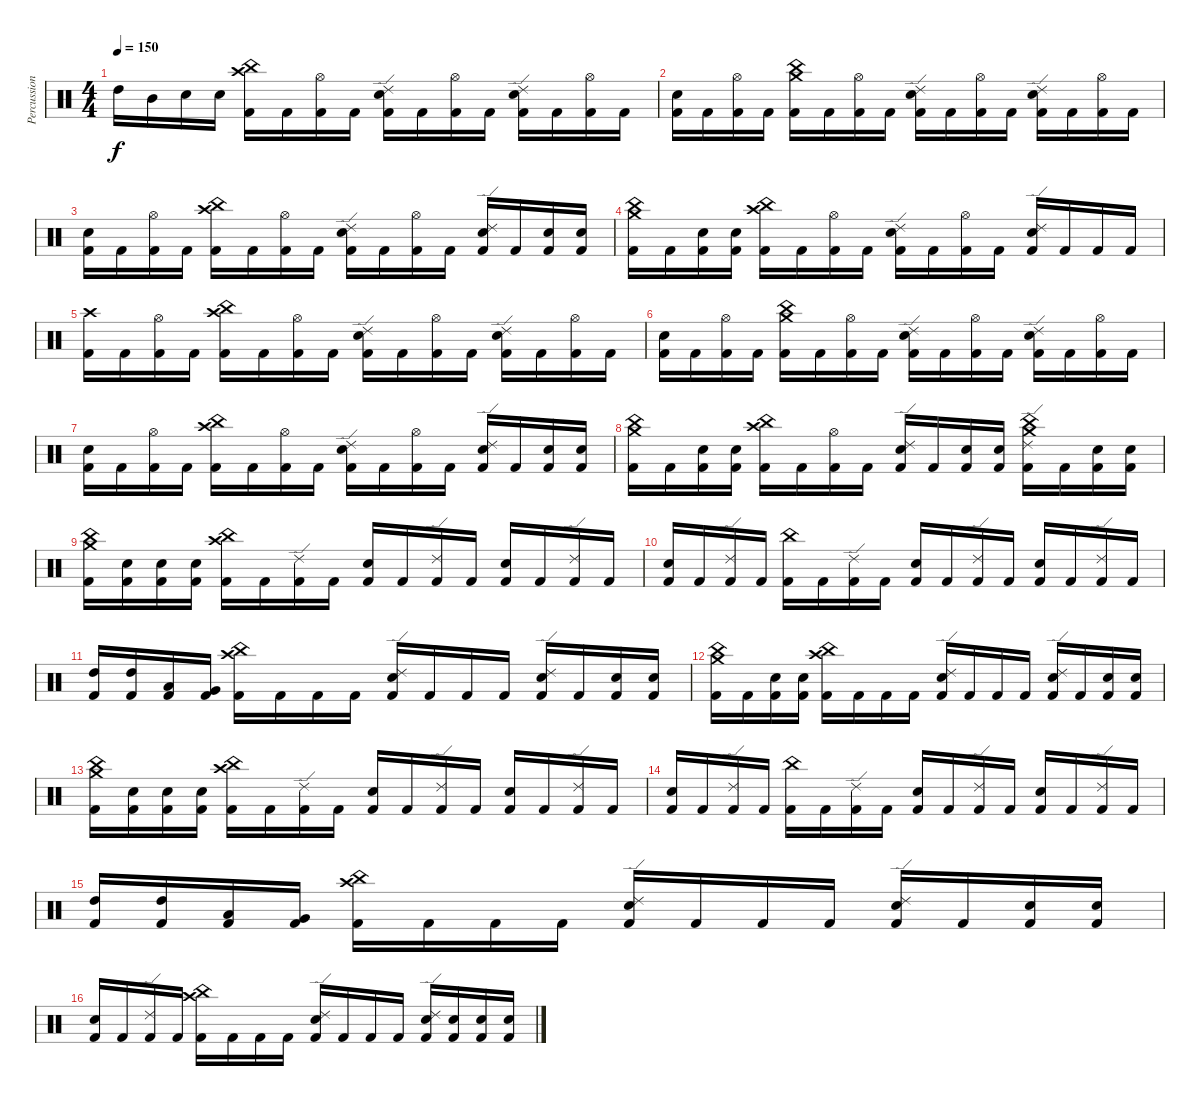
\track ("Percussion" "Percussion") {instrument percussion}
\staff {score}
\articulation defaults
\ts (4 4)
\tempo 150
\clef neutral
\ks c "High Tom (hit)".16{dy f} "Mid Tom (hit)".16 "Electric Snare (hit)".16 "Electric Snare (hit)".16
("China (hit)" "Crash high (hit)" "Kick (hit) 2").16 "Kick (hit) 2".16 ("Hi-Hat (open)" "Kick (hit) 2").16 "Kick (hit) 2".16 ("Ride (edge) 2" "Electric Snare (hit)" "Kick (hit) 2").16 "Kick (hit) 2".16 ("Hi-Hat (open)" "Kick (hit) 2").16 "Kick (hit) 2".16 ("Ride (edge) 2" "Electric Snare (hit)" "Kick (hit) 2").16 "Kick (hit) 2".16 ("Hi-Hat (open)" "Kick (hit) 2").16 "Kick (hit) 2".16 |
("Electric Snare (hit)" "Kick (hit) 2").16 "Kick (hit) 2".16 ("Hi-Hat (open)" "Kick (hit) 2").16 "Kick (hit) 2".16 ("China (hit)" "Crash medium (hit)" "Kick (hit) 2").16 "Kick (hit) 2".16 ("Hi-Hat (open)" "Kick (hit) 2").16 "Kick (hit) 2".16 ("Ride (edge) 2" "Electric Snare (hit)" "Kick (hit) 2").16 "Kick (hit) 2".16 ("Hi-Hat (open)" "Kick (hit) 2").16 "Kick (hit) 2".16 ("Ride (edge) 2" "Electric Snare (hit)" "Kick (hit) 2").16 "Kick (hit) 2".16 ("Hi-Hat (open)" "Kick (hit) 2").16 "Kick (hit) 2".16 |
("Electric Snare (hit)" "Kick (hit) 2").16 "Kick (hit) 2".16 ("Hi-Hat (open)" "Kick (hit) 2").16 "Kick (hit) 2".16 ("China (hit)" "Crash high (hit)" "Kick (hit) 2").16 "Kick (hit) 2".16 ("Hi-Hat (open)" "Kick (hit) 2").16 "Kick (hit) 2".16 ("Ride (edge) 2" "Electric Snare (hit)" "Kick (hit) 2").16 "Kick (hit) 2".16 ("Hi-Hat (open)" "Kick (hit) 2").16 "Kick (hit) 2".16 ("Ride (edge) 2" "Electric Snare (hit)" "Kick (hit) 2").16 "Kick (hit) 2".16 ("Electric Snare (hit)" "Kick (hit) 2").16 ("Electric Snare (hit)" "Kick (hit) 2").16 |
("China (hit)" "Crash medium (hit)" "Kick (hit) 2").16 "Kick (hit) 2".16 ("Electric Snare (hit)" "Kick (hit) 2").16 ("Electric Snare (hit)" "Kick (hit) 2").16 ("China (hit)" "Crash high (hit)" "Kick (hit) 2").16 "Kick (hit) 2".16 ("Hi-Hat (open)" "Kick (hit) 2").16 "Kick (hit) 2".16 ("Ride (edge) 2" "Electric Snare (hit)" "Kick (hit) 2").16 "Kick (hit) 2".16 ("Hi-Hat (open)" "Kick (hit) 2").16 "Kick (hit) 2".16 ("Ride (edge) 2" "Electric Snare (hit)" "Kick (hit) 2").16 "Kick (hit) 2".16 "Kick (hit) 2".16 "Kick (hit) 2".16 |
("Crash high (hit)" "Kick (hit) 2").16 "Kick (hit) 2".16 ("Hi-Hat (open)" "Kick (hit) 2").16 "Kick (hit) 2".16 ("China (hit)" "Crash high (hit)" "Kick (hit) 2").16 "Kick (hit) 2".16 ("Hi-Hat (open)" "Kick (hit) 2").16 "Kick (hit) 2".16 ("Ride (edge) 2" "Electric Snare (hit)" "Kick (hit) 2").16 "Kick (hit) 2".16 ("Hi-Hat (open)" "Kick (hit) 2").16 "Kick (hit) 2".16 ("Ride (edge) 2" "Electric Snare (hit)" "Kick (hit) 2").16 "Kick (hit) 2".16 ("Hi-Hat (open)" "Kick (hit) 2").16 "Kick (hit) 2".16 |
("Electric Snare (hit)" "Kick (hit) 2").16 "Kick (hit) 2".16 ("Hi-Hat (open)" "Kick (hit) 2").16 "Kick (hit) 2".16 ("China (hit)" "Crash medium (hit)" "Kick (hit) 2").16 "Kick (hit) 2".16 ("Hi-Hat (open)" "Kick (hit) 2").16 "Kick (hit) 2".16 ("Ride (edge) 2" "Electric Snare (hit)" "Kick (hit) 2").16 "Kick (hit) 2".16 ("Hi-Hat (open)" "Kick (hit) 2").16 "Kick (hit) 2".16 ("Ride (edge) 2" "Electric Snare (hit)" "Kick (hit) 2").16 "Kick (hit) 2".16 ("Hi-Hat (open)" "Kick (hit) 2").16 "Kick (hit) 2".16 |
("Electric Snare (hit)" "Kick (hit) 2").16 "Kick (hit) 2".16 ("Hi-Hat (open)" "Kick (hit) 2").16 "Kick (hit) 2".16 ("China (hit)" "Crash high (hit)" "Kick (hit) 2").16 "Kick (hit) 2".16 ("Hi-Hat (open)" "Kick (hit) 2").16 "Kick (hit) 2".16 ("Ride (edge) 2" "Electric Snare (hit)" "Kick (hit) 2").16 "Kick (hit) 2".16 ("Hi-Hat (open)" "Kick (hit) 2").16 "Kick (hit) 2".16 ("Ride (edge) 2" "Electric Snare (hit)" "Kick (hit) 2").16 "Kick (hit) 2".16 ("Electric Snare (hit)" "Kick (hit) 2").16 ("Electric Snare (hit)" "Kick (hit) 2").16 |
("China (hit)" "Crash medium (hit)" "Kick (hit) 2").16 "Kick (hit) 2".16 ("Electric Snare (hit)" "Kick (hit) 2").16 ("Electric Snare (hit)" "Kick (hit) 2").16 ("China (hit)" "Crash high (hit)" "Kick (hit) 2").16 "Kick (hit) 2".16 ("Hi-Hat (open)" "Kick (hit) 2").16 "Kick (hit) 2".16 ("Ride (edge) 2" "Electric Snare (hit)" "Kick (hit) 2").16 "Kick (hit) 2".16 ("Electric Snare (hit)" "Kick (hit) 2").16 ("Electric Snare (hit)" "Kick (hit) 2").16 ("China (hit)" "Crash medium (hit)" "Ride (edge) 2" "Kick (hit) 2").16 "Kick (hit) 2".16 ("Electric Snare (hit)" "Kick (hit) 2").16 ("Electric Snare (hit)" "Kick (hit) 2").16 |
("China (hit)" "Crash medium (hit)" "Kick (hit) 2").16 ("Electric Snare (hit)" "Kick (hit) 2").16 ("Electric Snare (hit)" "Kick (hit) 2").16 ("Electric Snare (hit)" "Kick (hit) 2").16 ("China (hit)" "Crash high (hit)" "Kick (hit) 2").16 "Kick (hit) 2".16 ("Ride (edge) 2" "Kick (hit) 2").16 "Kick (hit) 2".16 ("Electric Snare (hit)" "Kick (hit) 2").16 "Kick (hit) 2".16 ("Ride (edge) 2" "Kick (hit) 2").16 "Kick (hit) 2".16 ("Electric Snare (hit)" "Kick (hit) 2").16 "Kick (hit) 2".16 ("Ride (edge) 2" "Kick (hit) 2").16 "Kick (hit) 2".16 |
("Electric Snare (hit)" "Kick (hit) 2").16 "Kick (hit) 2".16 ("Ride (edge) 2" "Kick (hit) 2").16 "Kick (hit) 2".16 ("China (hit)" "Kick (hit) 2").16 "Kick (hit) 2".16 ("Ride (edge) 2" "Kick (hit) 2").16 "Kick (hit) 2".16 ("Electric Snare (hit)" "Kick (hit) 2").16 "Kick (hit) 2".16 ("Ride (edge) 2" "Kick (hit) 2").16 "Kick (hit) 2".16 ("Electric Snare (hit)" "Kick (hit) 2").16 "Kick (hit) 2".16 ("Ride (edge) 2" "Kick (hit) 2").16 "Kick (hit) 2".16 |
("High Tom (hit)" "Kick (hit) 2").16 ("High Tom (hit)" "Kick (hit) 2").16 ("Low Tom (hit)" "Kick (hit) 2").16 ("Very Low Tom (hit)" "Kick (hit) 2").16 ("China (hit)" "Crash high (hit)" "Kick (hit) 2").16 "Kick (hit) 2".16 "Kick (hit) 2".16 "Kick (hit) 2".16 ("Ride (edge) 2" "Electric Snare (hit)" "Kick (hit) 2").16 "Kick (hit) 2".16 "Kick (hit) 2".16 "Kick (hit) 2".16 ("Ride (edge) 2" "Electric Snare (hit)" "Kick (hit) 2").16 "Kick (hit) 2".16 ("Electric Snare (hit)" "Kick (hit) 2").16 ("Electric Snare (hit)" "Kick (hit) 2").16 |
("China (hit)" "Crash medium (hit)" "Kick (hit) 2").16 "Kick (hit) 2".16 ("Electric Snare (hit)" "Kick (hit) 2").16 ("Electric Snare (hit)" "Kick (hit) 2").16 ("China (hit)" "Crash high (hit)" "Kick (hit) 2").16 "Kick (hit) 2".16 "Kick (hit) 2".16 "Kick (hit) 2".16 ("Ride (edge) 2" "Electric Snare (hit)" "Kick (hit) 2").16 "Kick (hit) 2".16 "Kick (hit) 2".16 "Kick (hit) 2".16 ("Ride (edge) 2" "Electric Snare (hit)" "Kick (hit) 2").16 "Kick (hit) 2".16 ("Electric Snare (hit)" "Kick (hit) 2").16 ("Electric Snare (hit)" "Kick (hit) 2").16 |
("China (hit)" "Crash medium (hit)" "Kick (hit) 2").16 ("Electric Snare (hit)" "Kick (hit) 2").16 ("Electric Snare (hit)" "Kick (hit) 2").16 ("Electric Snare (hit)" "Kick (hit) 2").16 ("China (hit)" "Crash high (hit)" "Kick (hit) 2").16 "Kick (hit) 2".16 ("Ride (edge) 2" "Kick (hit) 2").16 "Kick (hit) 2".16 ("Electric Snare (hit)" "Kick (hit) 2").16 "Kick (hit) 2".16 ("Ride (edge) 2" "Kick (hit) 2").16 "Kick (hit) 2".16 ("Electric Snare (hit)" "Kick (hit) 2").16 "Kick (hit) 2".16 ("Ride (edge) 2" "Kick (hit) 2").16 "Kick (hit) 2".16 |
("Electric Snare (hit)" "Kick (hit) 2").16 "Kick (hit) 2".16 ("Ride (edge) 2" "Kick (hit) 2").16 "Kick (hit) 2".16 ("China (hit)" "Kick (hit) 2").16 "Kick (hit) 2".16 ("Ride (edge) 2" "Kick (hit) 2").16 "Kick (hit) 2".16 ("Electric Snare (hit)" "Kick (hit) 2").16 "Kick (hit) 2".16 ("Ride (edge) 2" "Kick (hit) 2").16 "Kick (hit) 2".16 ("Electric Snare (hit)" "Kick (hit) 2").16 "Kick (hit) 2".16 ("Ride (edge) 2" "Kick (hit) 2").16 "Kick (hit) 2".16 |
("High Tom (hit)" "Kick (hit) 2").16 ("High Tom (hit)" "Kick (hit) 2").16 ("Low Tom (hit)" "Kick (hit) 2").16 ("Very Low Tom (hit)" "Kick (hit) 2").16 ("China (hit)" "Crash high (hit)" "Kick (hit) 2").16 "Kick (hit) 2".16 "Kick (hit) 2".16 "Kick (hit) 2".16 ("Ride (edge) 2" "Electric Snare (hit)" "Kick (hit) 2").16 "Kick (hit) 2".16 "Kick (hit) 2".16 "Kick (hit) 2".16 ("Ride (edge) 2" "Electric Snare (hit)" "Kick (hit) 2").16 "Kick (hit) 2".16 ("Electric Snare (hit)" "Kick (hit) 2").16 ("Electric Snare (hit)" "Kick (hit) 2").16 |
("Electric Snare (hit)" "Kick (hit) 2").16 "Kick (hit) 2".16 ("Ride (edge) 2" "Kick (hit) 2").16 "Kick (hit) 2".16 ("China (hit)" "Crash high (hit)" "Kick (hit) 2").16 "Kick (hit) 2".16 "Kick (hit) 2".16 "Kick (hit) 2".16 ("Ride (edge) 2" "Electric Snare (hit)" "Kick (hit) 2").16 "Kick (hit) 2".16 "Kick (hit) 2".16 "Kick (hit) 2".16 ("Ride (edge) 2" "Electric Snare (hit)" "Kick (hit) 2").16 ("Electric Snare (hit)" "Kick (hit) 2").16 ("Electric Snare (hit)" "Kick (hit) 2").16 ("Electric Snare (hit)" "Kick (hit) 2").16
